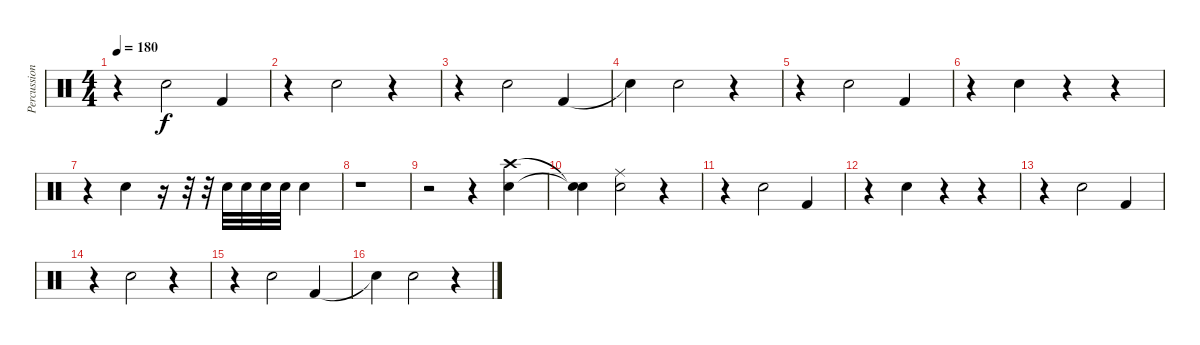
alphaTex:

\track ("Percussion" "Percussion") {instrument percussion}
\staff {score}
\articulation defaults
\ts (4 4)
\tempo 180
\clef neutral
\ks c
r.4{dy f} "Electric Snare (hit)".2 "Kick (hit) 2".4 |
r.4 "Electric Snare (hit)".2 r.4 |
r.4 "Electric Snare (hit)".2 "Kick (hit) 2".4 |
"Snare (hit)"{t}.4 "Electric Snare (hit)".2 r.4 |
r.4 "Electric Snare (hit)".2 "Kick (hit) 2".4 |
r.4 "Electric Snare (hit)".4 r.4 r.4 |
r.4 "Electric Snare (hit)".4 r.16 r.32 r.32 "Electric Snare (hit)".32 "Electric Snare (hit)".32 "Electric Snare (hit)".32 "Electric Snare (hit)".32 "Electric Snare (hit)".4 |
r.1 |
r.2 r.4 ("Crash high (hit)" "Electric Snare (hit)").4 |
("Snare (hit)"{t} "Snare (hit)"{t}).4 ("Electric Snare (hit)" "Ride (middle)").2 r.4 |
r.4 "Electric Snare (hit)".2 "Kick (hit) 2".4 |
r.4 "Electric Snare (hit)".4 r.4 r.4 |
r.4 "Electric Snare (hit)".2 "Kick (hit) 2".4 |
r.4 "Electric Snare (hit)".2 r.4 |
r.4 "Electric Snare (hit)".2 "Kick (hit) 2".4 |
"Snare (hit)"{t}.4 "Electric Snare (hit)".2 r.4
